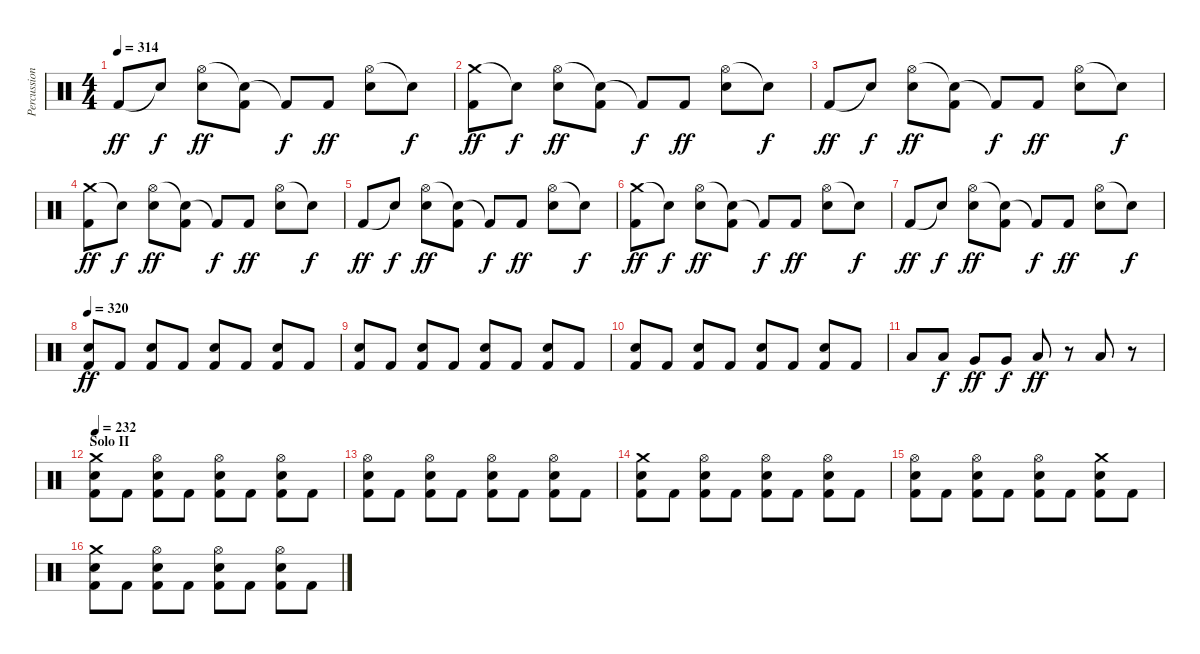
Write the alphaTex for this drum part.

\track ("Percussion" "Percussion") {instrument percussion}
\staff {score}
\articulation defaults
\ts (4 4)
\tempo 314
\clef neutral
\ks c "Kick (hit) 2".8{dy ff} "Snare (hit)"{t}.8{dy f}
("Hi-Hat (open)" "Snare (hit) 2").8{dy ff} ("Snare (hit)"{t} "Kick (hit) 2").8 "Kick (hit) 2"{t}.8{dy f} "Kick (hit) 2".8{dy ff} ("Hi-Hat (open)" "Snare (hit) 2").8 "Snare (hit)"{t}.8{dy f} |
("Crash medium (hit)" "Kick (hit) 2").8{dy ff} "Snare (hit)"{t}.8{dy f} ("Hi-Hat (open)" "Snare (hit) 2").8{dy ff} ("Snare (hit)"{t} "Kick (hit) 2").8 "Kick (hit) 2"{t}.8{dy f} "Kick (hit) 2".8{dy ff} ("Hi-Hat (open)" "Snare (hit) 2").8 "Snare (hit)"{t}.8{dy f} |
"Kick (hit) 2".8{dy ff} "Snare (hit)"{t}.8{dy f} ("Hi-Hat (open)" "Snare (hit) 2").8{dy ff} ("Snare (hit)"{t} "Kick (hit) 2").8 "Kick (hit) 2"{t}.8{dy f} "Kick (hit) 2".8{dy ff} ("Hi-Hat (open)" "Snare (hit) 2").8 "Snare (hit)"{t}.8{dy f} |
("Crash medium (hit)" "Kick (hit) 2").8{dy ff} "Snare (hit)"{t}.8{dy f} ("Hi-Hat (open)" "Snare (hit) 2").8{dy ff} ("Snare (hit)"{t} "Kick (hit) 2").8 "Kick (hit) 2"{t}.8{dy f} "Kick (hit) 2".8{dy ff} ("Hi-Hat (open)" "Snare (hit) 2").8 "Snare (hit)"{t}.8{dy f} |
"Kick (hit) 2".8{dy ff} "Snare (hit)"{t}.8{dy f} ("Hi-Hat (open)" "Snare (hit) 2").8{dy ff} ("Snare (hit)"{t} "Kick (hit) 2").8 "Kick (hit) 2"{t}.8{dy f} "Kick (hit) 2".8{dy ff} ("Hi-Hat (open)" "Snare (hit) 2").8 "Snare (hit)"{t}.8{dy f} |
("Crash medium (hit)" "Kick (hit) 2").8{dy ff} "Snare (hit)"{t}.8{dy f} ("Hi-Hat (open)" "Snare (hit) 2").8{dy ff} ("Snare (hit)"{t} "Kick (hit) 2").8 "Kick (hit) 2"{t}.8{dy f} "Kick (hit) 2".8{dy ff} ("Hi-Hat (open)" "Snare (hit) 2").8 "Snare (hit)"{t}.8{dy f} |
"Kick (hit) 2".8{dy ff} "Snare (hit)"{t}.8{dy f} ("Hi-Hat (open)" "Snare (hit) 2").8{dy ff} ("Snare (hit)"{t} "Kick (hit) 2").8 "Kick (hit) 2"{t}.8{dy f} "Kick (hit) 2".8{dy ff} ("Hi-Hat (open)" "Snare (hit) 2").8 "Snare (hit)"{t}.8{dy f} |
\tempo 320
("Snare (hit) 2" "Kick (hit) 2").8{dy ff} "Kick (hit) 2".8 ("Snare (hit) 2" "Kick (hit) 2").8 "Kick (hit) 2".8 ("Snare (hit) 2" "Kick (hit) 2").8 "Kick (hit) 2".8 ("Snare (hit) 2" "Kick (hit) 2").8 "Kick (hit) 2".8 |
("Snare (hit) 2" "Kick (hit) 2").8 "Kick (hit) 2".8 ("Snare (hit) 2" "Kick (hit) 2").8 "Kick (hit) 2".8 ("Snare (hit) 2" "Kick (hit) 2").8 "Kick (hit) 2".8 ("Snare (hit) 2" "Kick (hit) 2").8 "Kick (hit) 2".8 |
("Snare (hit) 2" "Kick (hit) 2").8 "Kick (hit) 2".8 ("Snare (hit) 2" "Kick (hit) 2").8 "Kick (hit) 2".8 ("Snare (hit) 2" "Kick (hit) 2").8 "Kick (hit) 2".8 ("Snare (hit) 2" "Kick (hit) 2").8 "Kick (hit) 2".8 |
"Low Tom (hit)".8 "Low Tom (hit)".8{dy f} "Very Low Tom (hit)".8{dy ff} "Very Low Tom (hit)".8{dy f} "Low Floor Tom (hit)".8{dy ff} r.8 "Low Floor Tom (hit)".8 r.8 |
\section ("" "Solo II")
\tempo 232
("Crash medium (hit)" "Snare (hit) 2" "Kick (hit) 2").8 "Kick (hit) 2".8 ("Hi-Hat (open)" "Snare (hit) 2" "Kick (hit) 2").8 "Kick (hit) 2".8 ("Hi-Hat (open)" "Snare (hit) 2" "Kick (hit) 2").8 "Kick (hit) 2".8 ("Hi-Hat (open)" "Snare (hit) 2" "Kick (hit) 2").8 "Kick (hit) 2".8 |
("Hi-Hat (open)" "Snare (hit) 2" "Kick (hit) 2").8 "Kick (hit) 2".8 ("Hi-Hat (open)" "Snare (hit) 2" "Kick (hit) 2").8 "Kick (hit) 2".8 ("Hi-Hat (open)" "Snare (hit) 2" "Kick (hit) 2").8 "Kick (hit) 2".8 ("Hi-Hat (open)" "Snare (hit) 2" "Kick (hit) 2").8 "Kick (hit) 2".8 |
("Crash medium (hit)" "Snare (hit) 2" "Kick (hit) 2").8 "Kick (hit) 2".8 ("Hi-Hat (open)" "Snare (hit) 2" "Kick (hit) 2").8 "Kick (hit) 2".8 ("Hi-Hat (open)" "Snare (hit) 2" "Kick (hit) 2").8 "Kick (hit) 2".8 ("Hi-Hat (open)" "Snare (hit) 2" "Kick (hit) 2").8 "Kick (hit) 2".8 |
("Hi-Hat (open)" "Snare (hit) 2" "Kick (hit) 2").8 "Kick (hit) 2".8 ("Hi-Hat (open)" "Snare (hit) 2" "Kick (hit) 2").8 "Kick (hit) 2".8 ("Hi-Hat (open)" "Snare (hit) 2" "Kick (hit) 2").8 "Kick (hit) 2".8 ("Crash medium (hit)" "Snare (hit) 2" "Kick (hit) 2").8 "Kick (hit) 2".8 |
("Crash medium (hit)" "Snare (hit) 2" "Kick (hit) 2").8 "Kick (hit) 2".8 ("Hi-Hat (open)" "Snare (hit) 2" "Kick (hit) 2").8 "Kick (hit) 2".8 ("Hi-Hat (open)" "Snare (hit) 2" "Kick (hit) 2").8 "Kick (hit) 2".8 ("Hi-Hat (open)" "Snare (hit) 2" "Kick (hit) 2").8 "Kick (hit) 2".8
